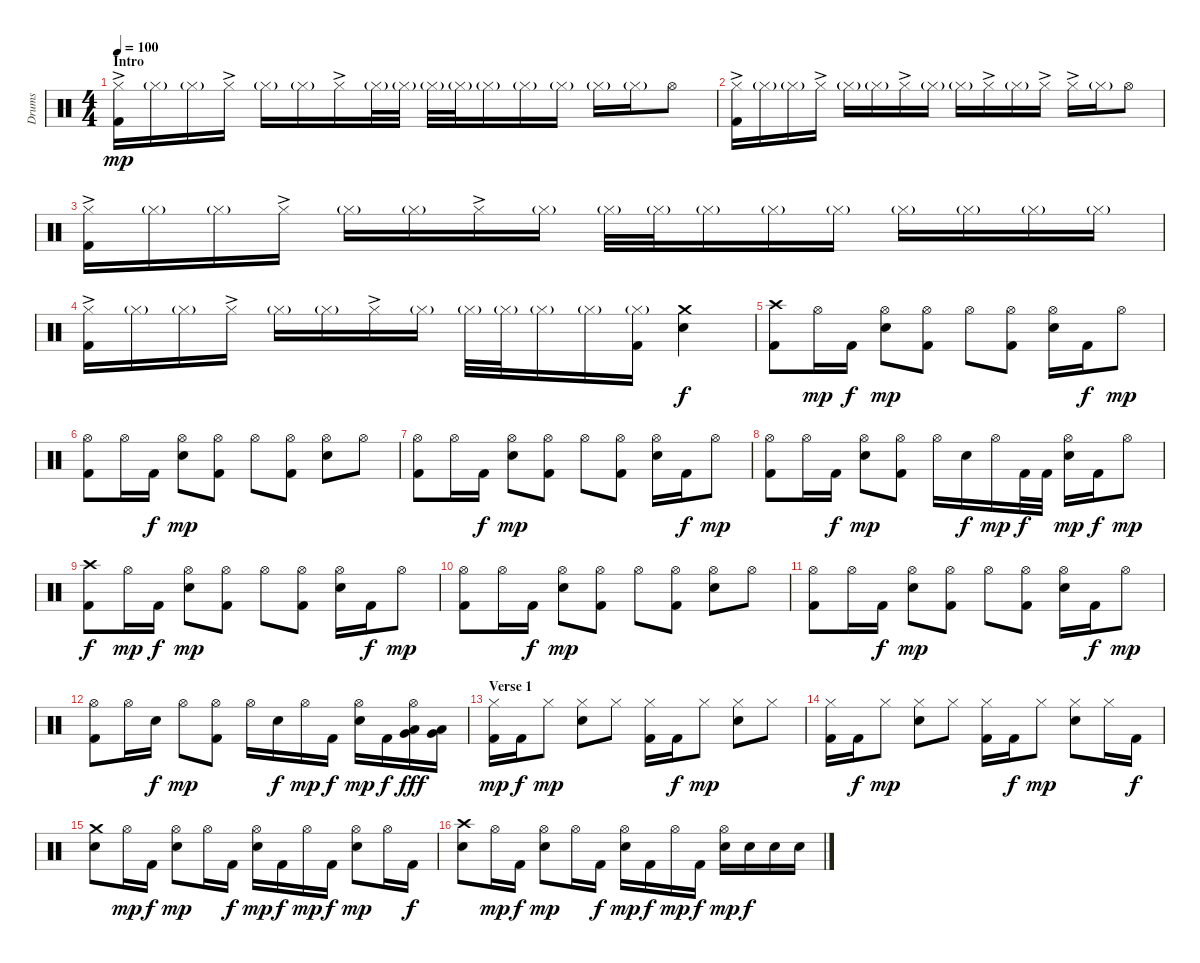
\track ("Drums" "Drums") {instrument percussion}
\staff {score}
\articulation defaults
\ts (4 4)
\section ("" "Intro")
\tempo 100
\clef neutral
\ks c
("Hi-Hat (closed)"{ac} "Kick (hit) 2").16{dy mp} "Hi-Hat (closed)"{g}.16 "Hi-Hat (closed)"{g}.16 "Hi-Hat (closed)"{ac}.16 "Hi-Hat (closed)"{g}.16 "Hi-Hat (closed)"{g}.16 "Hi-Hat (closed)"{ac}.16 "Hi-Hat (closed)"{g}.32 "Hi-Hat (closed)"{g}.32 "Hi-Hat (closed)"{g}.32 "Hi-Hat (closed)"{g}.32 "Hi-Hat (closed)"{g}.16 "Hi-Hat (closed)"{g}.16 "Hi-Hat (closed)"{g}.16 "Hi-Hat (closed)"{g}.16 "Hi-Hat (closed)"{g}.16 "Hi-Hat (open)".8 |
("Hi-Hat (closed)"{ac} "Kick (hit) 2").16 "Hi-Hat (closed)"{g}.16 "Hi-Hat (closed)"{g}.16 "Hi-Hat (closed)"{ac}.16 "Hi-Hat (closed)"{g}.16 "Hi-Hat (closed)"{g}.16 "Hi-Hat (closed)"{ac}.16 "Hi-Hat (closed)"{g}.16 "Hi-Hat (closed)"{g}.16 "Hi-Hat (closed)"{ac}.16 "Hi-Hat (closed)"{g}.16 "Hi-Hat (closed)"{ac}.16 "Hi-Hat (closed)"{ac}.16 "Hi-Hat (closed)"{g}.16 "Hi-Hat (open)".8 |
("Hi-Hat (closed)"{ac} "Kick (hit) 2").16 "Hi-Hat (closed)"{g}.16 "Hi-Hat (closed)"{g}.16 "Hi-Hat (closed)"{ac}.16 "Hi-Hat (closed)"{g}.16 "Hi-Hat (closed)"{g}.16 "Hi-Hat (closed)"{ac}.16 "Hi-Hat (closed)"{g}.16 "Hi-Hat (closed)"{g}.32 "Hi-Hat (closed)"{g}.32 "Hi-Hat (closed)"{g}.16 "Hi-Hat (closed)"{g}.16 "Hi-Hat (closed)"{g}.16 "Hi-Hat (closed)"{g}.16 "Hi-Hat (closed)"{g}.16 "Hi-Hat (closed)"{g}.16 "Hi-Hat (closed)"{g}.16 |
("Hi-Hat (closed)"{ac} "Kick (hit) 2").16 "Hi-Hat (closed)"{g}.16 "Hi-Hat (closed)"{g}.16 "Hi-Hat (closed)"{ac}.16 "Hi-Hat (closed)"{g}.16 "Hi-Hat (closed)"{g}.16 "Hi-Hat (closed)"{ac}.16 "Hi-Hat (closed)"{g}.16 "Hi-Hat (closed)"{g}.32 "Hi-Hat (closed)"{g}.32 "Hi-Hat (closed)"{g}.16 "Hi-Hat (closed)"{g}.16 ("Hi-Hat (closed)"{g} "Kick (hit) 2").16 ("Crash medium (hit)" "Snare (hit) 2").4{dy f} |
("Crash high (hit)" "Kick (hit) 2").8 "Hi-Hat (open)".16{dy mp} "Kick (hit) 2".16{dy f} ("Hi-Hat (open)" "Snare (hit) 2").8{dy mp} ("Hi-Hat (open)" "Kick (hit) 2").8 "Hi-Hat (open)".8 ("Hi-Hat (open)" "Kick (hit) 2").8 ("Hi-Hat (open)" "Snare (hit) 2").16 "Kick (hit) 2".16{dy f} "Hi-Hat (open)".8{dy mp} |
("Hi-Hat (open)" "Kick (hit) 2").8 "Hi-Hat (open)".16 "Kick (hit) 2".16{dy f} ("Hi-Hat (open)" "Snare (hit) 2").8{dy mp} ("Hi-Hat (open)" "Kick (hit) 2").8 "Hi-Hat (open)".8 ("Hi-Hat (open)" "Kick (hit) 2").8 ("Hi-Hat (open)" "Snare (hit) 2").8 "Hi-Hat (open)".8 |
("Hi-Hat (open)" "Kick (hit) 2").8 "Hi-Hat (open)".16 "Kick (hit) 2".16{dy f} ("Hi-Hat (open)" "Snare (hit) 2").8{dy mp} ("Hi-Hat (open)" "Kick (hit) 2").8 "Hi-Hat (open)".8 ("Hi-Hat (open)" "Kick (hit) 2").8 ("Hi-Hat (open)" "Snare (hit) 2").16 "Kick (hit) 2".16{dy f} "Hi-Hat (open)".8{dy mp} |
("Hi-Hat (open)" "Kick (hit) 2").8 "Hi-Hat (open)".16 "Kick (hit) 2".16{dy f} ("Hi-Hat (open)" "Snare (hit) 2").8{dy mp} ("Hi-Hat (open)" "Kick (hit) 2").8 "Hi-Hat (open)".16 "Snare (hit) 2".16{dy f} "Hi-Hat (open)".16{dy mp} "Kick (hit) 2".32{dy f} "Kick (hit) 2".32 ("Hi-Hat (open)" "Snare (hit) 2").16{dy mp} "Kick (hit) 2".16{dy f} "Hi-Hat (open)".8{dy mp} |
("Crash high (hit)" "Kick (hit) 2").8{dy f} "Hi-Hat (open)".16{dy mp} "Kick (hit) 2".16{dy f} ("Hi-Hat (open)" "Snare (hit) 2").8{dy mp} ("Hi-Hat (open)" "Kick (hit) 2").8 "Hi-Hat (open)".8 ("Hi-Hat (open)" "Kick (hit) 2").8 ("Hi-Hat (open)" "Snare (hit) 2").16 "Kick (hit) 2".16{dy f} "Hi-Hat (open)".8{dy mp} |
("Hi-Hat (open)" "Kick (hit) 2").8 "Hi-Hat (open)".16 "Kick (hit) 2".16{dy f} ("Hi-Hat (open)" "Snare (hit) 2").8{dy mp} ("Hi-Hat (open)" "Kick (hit) 2").8 "Hi-Hat (open)".8 ("Hi-Hat (open)" "Kick (hit) 2").8 ("Hi-Hat (open)" "Snare (hit) 2").8 "Hi-Hat (open)".8 |
("Hi-Hat (open)" "Kick (hit) 2").8 "Hi-Hat (open)".16 "Kick (hit) 2".16{dy f} ("Hi-Hat (open)" "Snare (hit) 2").8{dy mp} ("Hi-Hat (open)" "Kick (hit) 2").8 "Hi-Hat (open)".8 ("Hi-Hat (open)" "Kick (hit) 2").8 ("Hi-Hat (open)" "Snare (hit) 2").16 "Kick (hit) 2".16{dy f} "Hi-Hat (open)".8{dy mp} |
("Hi-Hat (open)" "Kick (hit) 2").8 "Hi-Hat (open)".16 "Snare (hit) 2".16{dy f} "Hi-Hat (open)".8{dy mp} ("Hi-Hat (open)" "Kick (hit) 2").8 "Hi-Hat (open)".16 "Snare (hit) 2".16{dy f} "Hi-Hat (open)".16{dy mp} "Kick (hit) 2".16{dy f} ("Hi-Hat (open)" "Snare (hit) 2").16{dy mp} "Kick (hit) 2".16{dy f} ("Hi-Hat (open)" "Low Floor Tom (hit)" "Very Low Tom (hit)").16{dy fff} ("Low Floor Tom (hit)" "Very Low Tom (hit)").16 |
\section ("" "Verse 1")
("Hi-Hat (closed)" "Kick (hit) 2").16{dy mp} "Kick (hit) 2".16{dy f} "Hi-Hat (closed)".8{dy mp} ("Hi-Hat (closed)" "Snare (hit) 2").8 "Hi-Hat (closed)".8 ("Hi-Hat (closed)" "Kick (hit) 2").16 "Kick (hit) 2".16{dy f} "Hi-Hat (closed)".8{dy mp} ("Hi-Hat (closed)" "Snare (hit) 2").8 "Hi-Hat (closed)".8 |
("Hi-Hat (closed)" "Kick (hit) 2").16 "Kick (hit) 2".16{dy f} "Hi-Hat (closed)".8{dy mp} ("Hi-Hat (closed)" "Snare (hit) 2").8 "Hi-Hat (closed)".8 ("Hi-Hat (closed)" "Kick (hit) 2").16 "Kick (hit) 2".16{dy f} "Hi-Hat (closed)".8{dy mp} ("Hi-Hat (closed)" "Snare (hit) 2").8 "Hi-Hat (closed)".16 "Kick (hit) 2".16{dy f} |
("Crash medium (hit)" "Snare (hit) 2").8 "Hi-Hat (open)".16{dy mp} "Kick (hit) 2".16{dy f} ("Hi-Hat (open)" "Snare (hit) 2").8{dy mp} "Hi-Hat (open)".16 "Kick (hit) 2".16{dy f} ("Hi-Hat (open)" "Snare (hit) 2").16{dy mp} "Kick (hit) 2".16{dy f} "Hi-Hat (open)".16{dy mp} "Kick (hit) 2".16{dy f} ("Hi-Hat (open)" "Snare (hit) 2").8{dy mp} "Hi-Hat (open)".16 "Kick (hit) 2".16{dy f} |
("Crash high (hit)" "Snare (hit) 2").8 "Hi-Hat (open)".16{dy mp} "Kick (hit) 2".16{dy f} ("Hi-Hat (open)" "Snare (hit) 2").8{dy mp} "Hi-Hat (open)".16 "Kick (hit) 2".16{dy f} ("Hi-Hat (open)" "Snare (hit) 2").16{dy mp} "Kick (hit) 2".16{dy f} "Hi-Hat (open)".16{dy mp} "Kick (hit) 2".16{dy f} ("Hi-Hat (open)" "Snare (hit) 2").16{dy mp} "Snare (hit) 2".16{dy f} "Snare (hit) 2".16 "Snare (hit) 2".16
